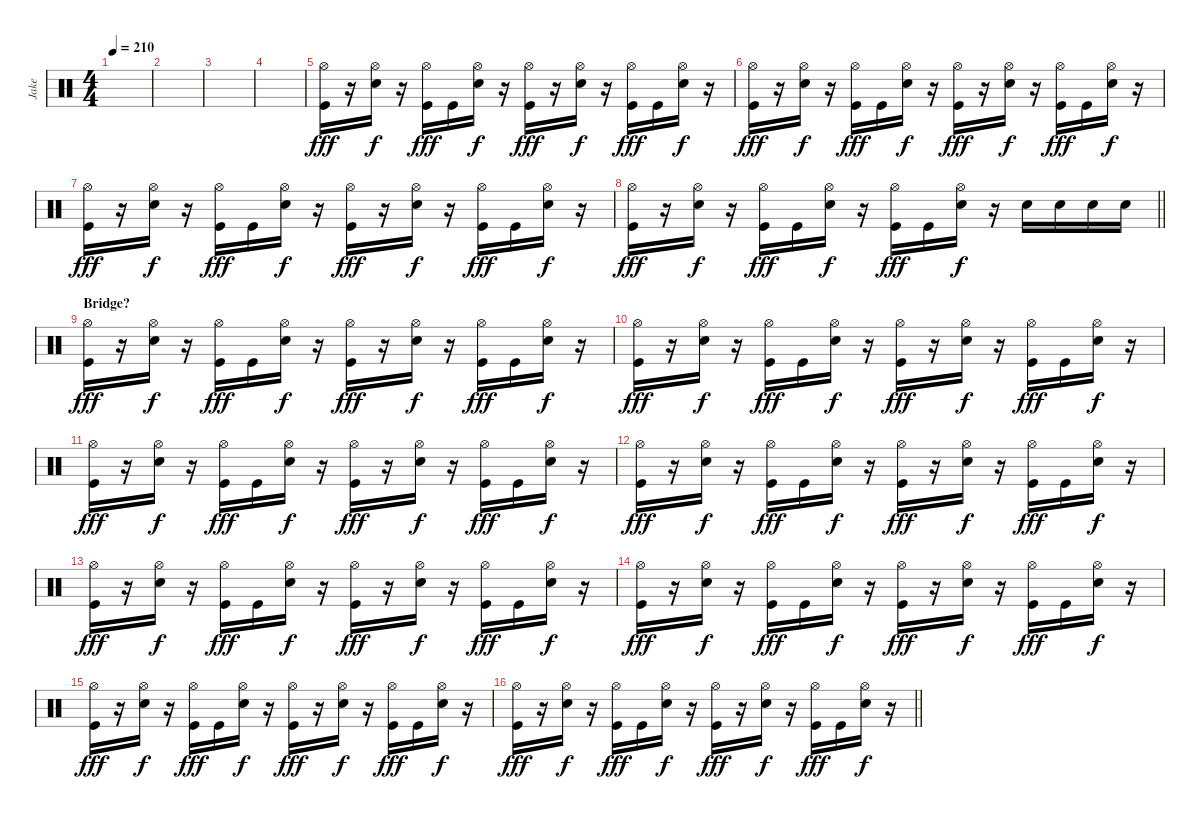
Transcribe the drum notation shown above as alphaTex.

\track ("Jake" "Jake") {instrument percussion}
\staff {score}
\articulation defaults
\ts (4 4)
\tempo 210
\clef neutral
\ks c
|
|
|
|
("Hi-Hat (open)" "Kick (hit)").16{dy fff volume 12} r.16 ("Hi-Hat (open)" "Electric Snare (hit)").16{dy f} r.16 ("Hi-Hat (open)" "Kick (hit)").16{dy fff} "Kick (hit)".16 ("Hi-Hat (open)" "Electric Snare (hit)").16{dy f} r.16 ("Hi-Hat (open)" "Kick (hit)").16{dy fff} r.16 ("Hi-Hat (open)" "Electric Snare (hit)").16{dy f} r.16 ("Hi-Hat (open)" "Kick (hit)").16{dy fff} "Kick (hit)".16 ("Hi-Hat (open)" "Electric Snare (hit)").16{dy f} r.16 |
("Hi-Hat (open)" "Kick (hit)").16{dy fff} r.16 ("Hi-Hat (open)" "Electric Snare (hit)").16{dy f} r.16 ("Hi-Hat (open)" "Kick (hit)").16{dy fff} "Kick (hit)".16 ("Hi-Hat (open)" "Electric Snare (hit)").16{dy f} r.16 ("Hi-Hat (open)" "Kick (hit)").16{dy fff} r.16 ("Hi-Hat (open)" "Electric Snare (hit)").16{dy f} r.16 ("Hi-Hat (open)" "Kick (hit)").16{dy fff} "Kick (hit)".16 ("Hi-Hat (open)" "Electric Snare (hit)").16{dy f} r.16 |
("Hi-Hat (open)" "Kick (hit)").16{dy fff} r.16 ("Hi-Hat (open)" "Electric Snare (hit)").16{dy f} r.16 ("Hi-Hat (open)" "Kick (hit)").16{dy fff} "Kick (hit)".16 ("Hi-Hat (open)" "Electric Snare (hit)").16{dy f} r.16 ("Hi-Hat (open)" "Kick (hit)").16{dy fff} r.16 ("Hi-Hat (open)" "Electric Snare (hit)").16{dy f} r.16 ("Hi-Hat (open)" "Kick (hit)").16{dy fff} "Kick (hit)".16 ("Hi-Hat (open)" "Electric Snare (hit)").16{dy f} r.16 |
\barLineRight lightlight
("Hi-Hat (open)" "Kick (hit)").16{dy fff} r.16 ("Hi-Hat (open)" "Electric Snare (hit)").16{dy f} r.16 ("Hi-Hat (open)" "Kick (hit)").16{dy fff} "Kick (hit)".16 ("Hi-Hat (open)" "Electric Snare (hit)").16{dy f} r.16 ("Hi-Hat (open)" "Kick (hit)").16{dy fff} "Kick (hit)".16 ("Hi-Hat (open)" "Electric Snare (hit)").16{dy f} r.16 "Electric Snare (hit)".16 "Electric Snare (hit)".16 "Electric Snare (hit)".16 "Electric Snare (hit)".16 |
\section ("" "Bridge?")
("Hi-Hat (open)" "Kick (hit)").16{dy fff} r.16 ("Hi-Hat (open)" "Electric Snare (hit)").16{dy f} r.16 ("Hi-Hat (open)" "Kick (hit)").16{dy fff} "Kick (hit)".16 ("Hi-Hat (open)" "Electric Snare (hit)").16{dy f} r.16 ("Hi-Hat (open)" "Kick (hit)").16{dy fff} r.16 ("Hi-Hat (open)" "Electric Snare (hit)").16{dy f} r.16 ("Hi-Hat (open)" "Kick (hit)").16{dy fff} "Kick (hit)".16 ("Hi-Hat (open)" "Electric Snare (hit)").16{dy f} r.16 |
("Hi-Hat (open)" "Kick (hit)").16{dy fff} r.16 ("Hi-Hat (open)" "Electric Snare (hit)").16{dy f} r.16 ("Hi-Hat (open)" "Kick (hit)").16{dy fff} "Kick (hit)".16 ("Hi-Hat (open)" "Electric Snare (hit)").16{dy f} r.16 ("Hi-Hat (open)" "Kick (hit)").16{dy fff} r.16 ("Hi-Hat (open)" "Electric Snare (hit)").16{dy f} r.16 ("Hi-Hat (open)" "Kick (hit)").16{dy fff} "Kick (hit)".16 ("Hi-Hat (open)" "Electric Snare (hit)").16{dy f} r.16 |
("Hi-Hat (open)" "Kick (hit)").16{dy fff} r.16 ("Hi-Hat (open)" "Electric Snare (hit)").16{dy f} r.16 ("Hi-Hat (open)" "Kick (hit)").16{dy fff} "Kick (hit)".16 ("Hi-Hat (open)" "Electric Snare (hit)").16{dy f} r.16 ("Hi-Hat (open)" "Kick (hit)").16{dy fff} r.16 ("Hi-Hat (open)" "Electric Snare (hit)").16{dy f} r.16 ("Hi-Hat (open)" "Kick (hit)").16{dy fff} "Kick (hit)".16 ("Hi-Hat (open)" "Electric Snare (hit)").16{dy f} r.16 |
("Hi-Hat (open)" "Kick (hit)").16{dy fff} r.16 ("Hi-Hat (open)" "Electric Snare (hit)").16{dy f} r.16 ("Hi-Hat (open)" "Kick (hit)").16{dy fff} "Kick (hit)".16 ("Hi-Hat (open)" "Electric Snare (hit)").16{dy f} r.16 ("Hi-Hat (open)" "Kick (hit)").16{dy fff} r.16 ("Hi-Hat (open)" "Electric Snare (hit)").16{dy f} r.16 ("Hi-Hat (open)" "Kick (hit)").16{dy fff} "Kick (hit)".16 ("Hi-Hat (open)" "Electric Snare (hit)").16{dy f} r.16 |
("Hi-Hat (open)" "Kick (hit)").16{dy fff} r.16 ("Hi-Hat (open)" "Electric Snare (hit)").16{dy f} r.16 ("Hi-Hat (open)" "Kick (hit)").16{dy fff} "Kick (hit)".16 ("Hi-Hat (open)" "Electric Snare (hit)").16{dy f} r.16 ("Hi-Hat (open)" "Kick (hit)").16{dy fff} r.16 ("Hi-Hat (open)" "Electric Snare (hit)").16{dy f} r.16 ("Hi-Hat (open)" "Kick (hit)").16{dy fff} "Kick (hit)".16 ("Hi-Hat (open)" "Electric Snare (hit)").16{dy f} r.16 |
("Hi-Hat (open)" "Kick (hit)").16{dy fff} r.16 ("Hi-Hat (open)" "Electric Snare (hit)").16{dy f} r.16 ("Hi-Hat (open)" "Kick (hit)").16{dy fff} "Kick (hit)".16 ("Hi-Hat (open)" "Electric Snare (hit)").16{dy f} r.16 ("Hi-Hat (open)" "Kick (hit)").16{dy fff} r.16 ("Hi-Hat (open)" "Electric Snare (hit)").16{dy f} r.16 ("Hi-Hat (open)" "Kick (hit)").16{dy fff} "Kick (hit)".16 ("Hi-Hat (open)" "Electric Snare (hit)").16{dy f} r.16 |
("Hi-Hat (open)" "Kick (hit)").16{dy fff} r.16 ("Hi-Hat (open)" "Electric Snare (hit)").16{dy f} r.16 ("Hi-Hat (open)" "Kick (hit)").16{dy fff} "Kick (hit)".16 ("Hi-Hat (open)" "Electric Snare (hit)").16{dy f} r.16 ("Hi-Hat (open)" "Kick (hit)").16{dy fff} r.16 ("Hi-Hat (open)" "Electric Snare (hit)").16{dy f} r.16 ("Hi-Hat (open)" "Kick (hit)").16{dy fff} "Kick (hit)".16 ("Hi-Hat (open)" "Electric Snare (hit)").16{dy f} r.16 |
\barLineRight lightlight
("Hi-Hat (open)" "Kick (hit)").16{dy fff} r.16 ("Hi-Hat (open)" "Electric Snare (hit)").16{dy f} r.16 ("Hi-Hat (open)" "Kick (hit)").16{dy fff} "Kick (hit)".16 ("Hi-Hat (open)" "Electric Snare (hit)").16{dy f} r.16 ("Hi-Hat (open)" "Kick (hit)").16{dy fff} r.16 ("Hi-Hat (open)" "Electric Snare (hit)").16{dy f} r.16 ("Hi-Hat (open)" "Kick (hit)").16{dy fff} "Kick (hit)".16 ("Hi-Hat (open)" "Electric Snare (hit)").16{dy f} r.16
